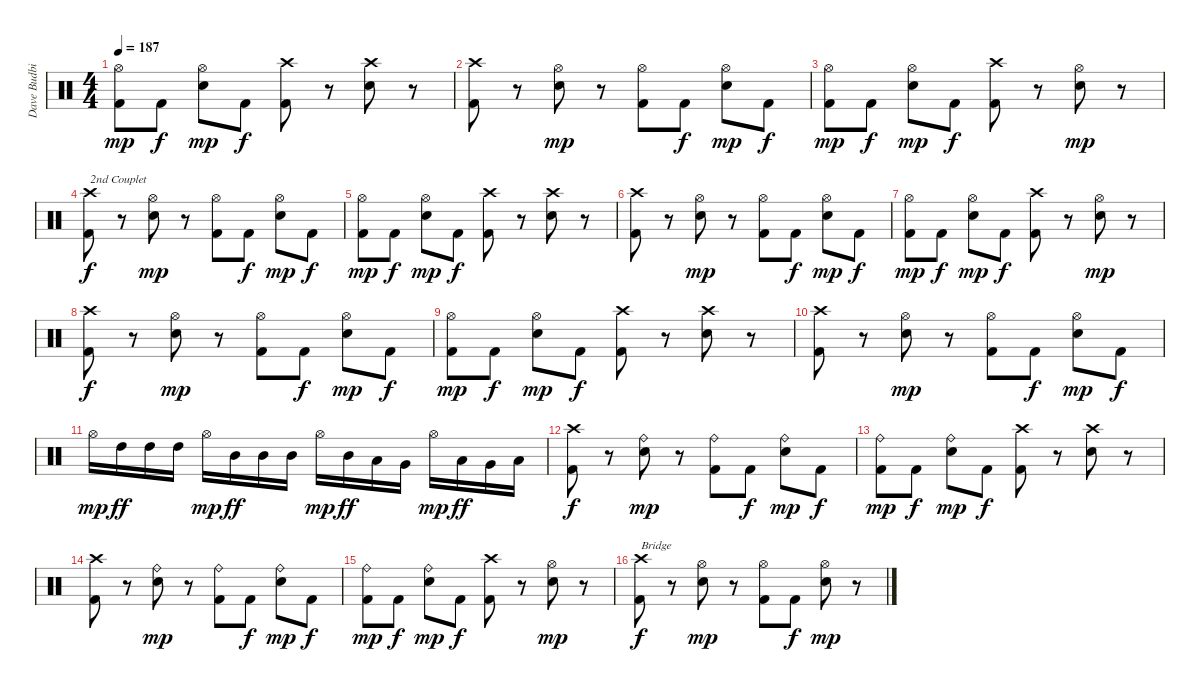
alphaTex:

\track ("Dave Budbill" "Dave Budbi") {instrument percussion}
\staff {score}
\articulation defaults
\ts (4 4)
\tempo 187
\clef neutral
\ks c
("Hi-Hat (open)" "Kick (hit) 2").8{dy mp} "Kick (hit) 2".8{dy f} ("Hi-Hat (open)" "Snare (hit) 2").8{dy mp} "Kick (hit) 2".8{dy f} ("Crash high (hit)" "Kick (hit) 2").8 r.8 ("Crash high (hit)" "Snare (hit) 2").8 r.8 |
("Crash high (hit)" "Kick (hit) 2").8 r.8 ("Hi-Hat (open)" "Snare (hit) 2").8{dy mp} r.8 ("Hi-Hat (open)" "Kick (hit) 2").8 "Kick (hit) 2".8{dy f} ("Hi-Hat (open)" "Snare (hit) 2").8{dy mp} "Kick (hit) 2".8{dy f} |
("Hi-Hat (open)" "Kick (hit) 2").8{dy mp} "Kick (hit) 2".8{dy f} ("Hi-Hat (open)" "Snare (hit) 2").8{dy mp} "Kick (hit) 2".8{dy f} ("Crash high (hit)" "Kick (hit) 2").8 r.8 ("Hi-Hat (open)" "Snare (hit) 2").8{dy mp} r.8 |
("Crash high (hit)" "Kick (hit) 2").8{txt "2nd Couplet" dy f} r.8 ("Hi-Hat (open)" "Snare (hit) 2").8{dy mp} r.8 ("Hi-Hat (open)" "Kick (hit) 2").8 "Kick (hit) 2".8{dy f} ("Hi-Hat (open)" "Snare (hit) 2").8{dy mp} "Kick (hit) 2".8{dy f} |
("Hi-Hat (open)" "Kick (hit) 2").8{dy mp} "Kick (hit) 2".8{dy f} ("Hi-Hat (open)" "Snare (hit) 2").8{dy mp} "Kick (hit) 2".8{dy f} ("Crash high (hit)" "Kick (hit) 2").8 r.8 ("Crash high (hit)" "Snare (hit) 2").8 r.8 |
("Crash high (hit)" "Kick (hit) 2").8 r.8 ("Hi-Hat (open)" "Snare (hit) 2").8{dy mp} r.8 ("Hi-Hat (open)" "Kick (hit) 2").8 "Kick (hit) 2".8{dy f} ("Hi-Hat (open)" "Snare (hit) 2").8{dy mp} "Kick (hit) 2".8{dy f} |
("Hi-Hat (open)" "Kick (hit) 2").8{dy mp} "Kick (hit) 2".8{dy f} ("Hi-Hat (open)" "Snare (hit) 2").8{dy mp} "Kick (hit) 2".8{dy f} ("Crash high (hit)" "Kick (hit) 2").8 r.8 ("Hi-Hat (open)" "Snare (hit) 2").8{dy mp} r.8 |
("Crash high (hit)" "Kick (hit) 2").8{dy f} r.8 ("Hi-Hat (open)" "Snare (hit) 2").8{dy mp} r.8 ("Hi-Hat (open)" "Kick (hit) 2").8 "Kick (hit) 2".8{dy f} ("Hi-Hat (open)" "Snare (hit) 2").8{dy mp} "Kick (hit) 2".8{dy f} |
("Hi-Hat (open)" "Kick (hit) 2").8{dy mp} "Kick (hit) 2".8{dy f} ("Hi-Hat (open)" "Snare (hit) 2").8{dy mp} "Kick (hit) 2".8{dy f} ("Crash high (hit)" "Kick (hit) 2").8 r.8 ("Crash high (hit)" "Snare (hit) 2").8 r.8 |
("Crash high (hit)" "Kick (hit) 2").8 r.8 ("Hi-Hat (open)" "Snare (hit) 2").8{dy mp} r.8 ("Hi-Hat (open)" "Kick (hit) 2").8 "Kick (hit) 2".8{dy f} ("Hi-Hat (open)" "Snare (hit) 2").8{dy mp} "Kick (hit) 2".8{dy f} |
"Hi-Hat (open)".16{dy mp} "High Tom (hit)".16{dy ff} "High Tom (hit)".16 "High Tom (hit)".16 "Hi-Hat (open)".16{dy mp} "Mid Tom (hit)".16{dy ff} "Mid Tom (hit)".16 "Mid Tom (hit)".16 "Hi-Hat (open)".16{dy mp} "Mid Tom (hit)".16{dy ff} "Low Tom (hit)".16 "Very Low Tom (hit)".16 "Hi-Hat (open)".16{dy mp} "Low Tom (hit)".16{dy ff} "Very Low Tom (hit)".16 "Low Floor Tom (hit)".16 |
("Crash high (hit)" "Kick (hit) 2").8{dy f} r.8 ("Ride (bell)" "Snare (hit) 2").8{dy mp} r.8 ("Ride (bell)" "Kick (hit) 2").8 "Kick (hit) 2".8{dy f} ("Ride (bell)" "Snare (hit) 2").8{dy mp} "Kick (hit) 2".8{dy f} |
("Ride (bell)" "Kick (hit) 2").8{dy mp} "Kick (hit) 2".8{dy f} ("Ride (bell)" "Snare (hit) 2").8{dy mp} "Kick (hit) 2".8{dy f} ("Crash high (hit)" "Kick (hit) 2").8 r.8 ("Crash high (hit)" "Snare (hit) 2").8 r.8 |
("Crash high (hit)" "Kick (hit) 2").8 r.8 ("Ride (bell)" "Snare (hit) 2").8{dy mp} r.8 ("Ride (bell)" "Kick (hit) 2").8 "Kick (hit) 2".8{dy f} ("Ride (bell)" "Snare (hit) 2").8{dy mp} "Kick (hit) 2".8{dy f} |
("Ride (bell)" "Kick (hit) 2").8{dy mp} "Kick (hit) 2".8{dy f} ("Ride (bell)" "Snare (hit) 2").8{dy mp} "Kick (hit) 2".8{dy f} ("Crash high (hit)" "Kick (hit) 2").8 r.8 ("Hi-Hat (open)" "Snare (hit) 2").8{dy mp} r.8 |
("Crash high (hit)" "Kick (hit) 2").8{txt "Bridge" dy f} r.8 ("Hi-Hat (open)" "Snare (hit) 2").8{dy mp} r.8 ("Hi-Hat (open)" "Kick (hit) 2").8 "Kick (hit) 2".8{dy f} ("Hi-Hat (open)" "Snare (hit) 2").8{dy mp} r.8
